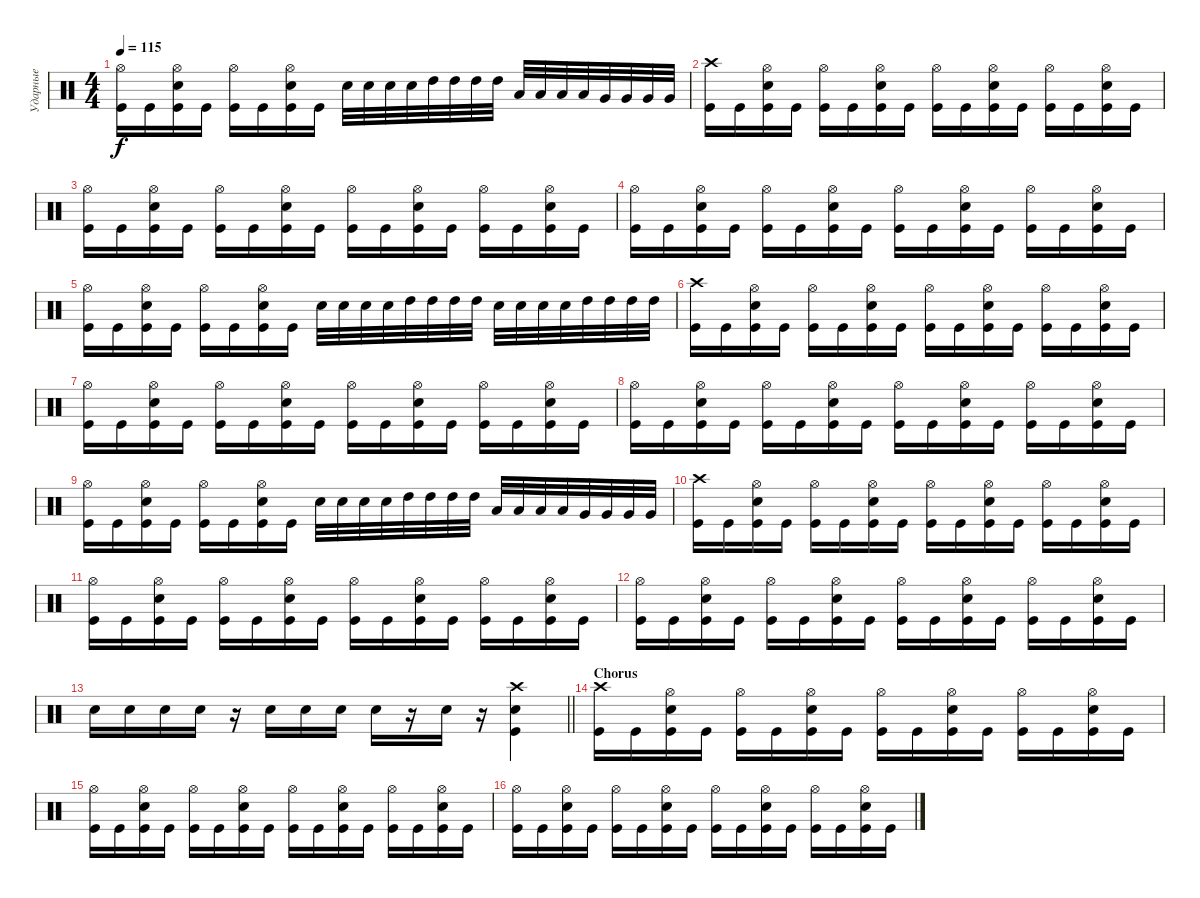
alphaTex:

\track ("Ударные" "Ударные") {instrument percussion}
\staff {score}
\articulation defaults
\ts (4 4)
\tempo 115
\clef neutral
\ks c
("Hi-Hat (open)" "Kick (hit)").16{dy f} "Kick (hit)".16 ("Hi-Hat (open)" "Snare (hit) 2" "Kick (hit)").16 "Kick (hit)".16 ("Hi-Hat (open)" "Kick (hit)").16 "Kick (hit)".16 ("Hi-Hat (open)" "Snare (hit) 2" "Kick (hit)").16 "Kick (hit)".16 "Snare (hit) 2".32 "Snare (hit) 2".32 "Snare (hit) 2".32 "Snare (hit) 2".32 "High Tom (hit)".32 "High Tom (hit)".32 "High Tom (hit)".32 "High Tom (hit)".32 "Low Tom (hit)".32 "Low Tom (hit)".32 "Low Tom (hit)".32 "Low Tom (hit)".32 "Very Low Tom (hit)".32 "Very Low Tom (hit)".32 "Very Low Tom (hit)".32 "Very Low Tom (hit)".32 |
("Crash high (hit)" "Kick (hit)").16 "Kick (hit)".16 ("Hi-Hat (open)" "Snare (hit) 2" "Kick (hit)").16 "Kick (hit)".16 ("Hi-Hat (open)" "Kick (hit)").16 "Kick (hit)".16 ("Hi-Hat (open)" "Snare (hit) 2" "Kick (hit)").16 "Kick (hit)".16 ("Hi-Hat (open)" "Kick (hit)").16 "Kick (hit)".16 ("Hi-Hat (open)" "Snare (hit) 2" "Kick (hit)").16 "Kick (hit)".16 ("Hi-Hat (open)" "Kick (hit)").16 "Kick (hit)".16 ("Hi-Hat (open)" "Snare (hit) 2" "Kick (hit)").16 "Kick (hit)".16 |
("Hi-Hat (open)" "Kick (hit)").16 "Kick (hit)".16 ("Hi-Hat (open)" "Snare (hit) 2" "Kick (hit)").16 "Kick (hit)".16 ("Hi-Hat (open)" "Kick (hit)").16 "Kick (hit)".16 ("Hi-Hat (open)" "Snare (hit) 2" "Kick (hit)").16 "Kick (hit)".16 ("Hi-Hat (open)" "Kick (hit)").16 "Kick (hit)".16 ("Hi-Hat (open)" "Snare (hit) 2" "Kick (hit)").16 "Kick (hit)".16 ("Hi-Hat (open)" "Kick (hit)").16 "Kick (hit)".16 ("Hi-Hat (open)" "Snare (hit) 2" "Kick (hit)").16 "Kick (hit)".16 |
("Hi-Hat (open)" "Kick (hit)").16 "Kick (hit)".16 ("Hi-Hat (open)" "Snare (hit) 2" "Kick (hit)").16 "Kick (hit)".16 ("Hi-Hat (open)" "Kick (hit)").16 "Kick (hit)".16 ("Hi-Hat (open)" "Snare (hit) 2" "Kick (hit)").16 "Kick (hit)".16 ("Hi-Hat (open)" "Kick (hit)").16 "Kick (hit)".16 ("Hi-Hat (open)" "Snare (hit) 2" "Kick (hit)").16 "Kick (hit)".16 ("Hi-Hat (open)" "Kick (hit)").16 "Kick (hit)".16 ("Hi-Hat (open)" "Snare (hit) 2" "Kick (hit)").16 "Kick (hit)".16 |
("Hi-Hat (open)" "Kick (hit)").16 "Kick (hit)".16 ("Hi-Hat (open)" "Snare (hit) 2" "Kick (hit)").16 "Kick (hit)".16 ("Hi-Hat (open)" "Kick (hit)").16 "Kick (hit)".16 ("Hi-Hat (open)" "Snare (hit) 2" "Kick (hit)").16 "Kick (hit)".16 "Snare (hit) 2".32 "Snare (hit) 2".32 "Snare (hit) 2".32 "Snare (hit) 2".32 "High Tom (hit)".32 "High Tom (hit)".32 "High Tom (hit)".32 "High Tom (hit)".32 "Snare (hit) 2".32 "Snare (hit) 2".32 "Snare (hit) 2".32 "Snare (hit) 2".32 "High Tom (hit)".32 "High Tom (hit)".32 "High Tom (hit)".32 "High Tom (hit)".32 |
("Crash high (hit)" "Kick (hit)").16 "Kick (hit)".16 ("Hi-Hat (open)" "Snare (hit) 2" "Kick (hit)").16 "Kick (hit)".16 ("Hi-Hat (open)" "Kick (hit)").16 "Kick (hit)".16 ("Hi-Hat (open)" "Snare (hit) 2" "Kick (hit)").16 "Kick (hit)".16 ("Hi-Hat (open)" "Kick (hit)").16 "Kick (hit)".16 ("Hi-Hat (open)" "Snare (hit) 2" "Kick (hit)").16 "Kick (hit)".16 ("Hi-Hat (open)" "Kick (hit)").16 "Kick (hit)".16 ("Hi-Hat (open)" "Snare (hit) 2" "Kick (hit)").16 "Kick (hit)".16 |
("Hi-Hat (open)" "Kick (hit)").16 "Kick (hit)".16 ("Hi-Hat (open)" "Snare (hit) 2" "Kick (hit)").16 "Kick (hit)".16 ("Hi-Hat (open)" "Kick (hit)").16 "Kick (hit)".16 ("Hi-Hat (open)" "Snare (hit) 2" "Kick (hit)").16 "Kick (hit)".16 ("Hi-Hat (open)" "Kick (hit)").16 "Kick (hit)".16 ("Hi-Hat (open)" "Snare (hit) 2" "Kick (hit)").16 "Kick (hit)".16 ("Hi-Hat (open)" "Kick (hit)").16 "Kick (hit)".16 ("Hi-Hat (open)" "Snare (hit) 2" "Kick (hit)").16 "Kick (hit)".16 |
("Hi-Hat (open)" "Kick (hit)").16 "Kick (hit)".16 ("Hi-Hat (open)" "Snare (hit) 2" "Kick (hit)").16 "Kick (hit)".16 ("Hi-Hat (open)" "Kick (hit)").16 "Kick (hit)".16 ("Hi-Hat (open)" "Snare (hit) 2" "Kick (hit)").16 "Kick (hit)".16 ("Hi-Hat (open)" "Kick (hit)").16 "Kick (hit)".16 ("Hi-Hat (open)" "Snare (hit) 2" "Kick (hit)").16 "Kick (hit)".16 ("Hi-Hat (open)" "Kick (hit)").16 "Kick (hit)".16 ("Hi-Hat (open)" "Snare (hit) 2" "Kick (hit)").16 "Kick (hit)".16 |
("Hi-Hat (open)" "Kick (hit)").16 "Kick (hit)".16 ("Hi-Hat (open)" "Snare (hit) 2" "Kick (hit)").16 "Kick (hit)".16 ("Hi-Hat (open)" "Kick (hit)").16 "Kick (hit)".16 ("Hi-Hat (open)" "Snare (hit) 2" "Kick (hit)").16 "Kick (hit)".16 "Snare (hit) 2".32 "Snare (hit) 2".32 "Snare (hit) 2".32 "Snare (hit) 2".32 "High Tom (hit)".32 "High Tom (hit)".32 "High Tom (hit)".32 "High Tom (hit)".32 "Low Tom (hit)".32 "Low Tom (hit)".32 "Low Tom (hit)".32 "Low Tom (hit)".32 "Very Low Tom (hit)".32 "Very Low Tom (hit)".32 "Very Low Tom (hit)".32 "Very Low Tom (hit)".32 |
("Crash high (hit)" "Kick (hit)").16 "Kick (hit)".16 ("Hi-Hat (open)" "Snare (hit) 2" "Kick (hit)").16 "Kick (hit)".16 ("Hi-Hat (open)" "Kick (hit)").16 "Kick (hit)".16 ("Hi-Hat (open)" "Snare (hit) 2" "Kick (hit)").16 "Kick (hit)".16 ("Hi-Hat (open)" "Kick (hit)").16 "Kick (hit)".16 ("Hi-Hat (open)" "Snare (hit) 2" "Kick (hit)").16 "Kick (hit)".16 ("Hi-Hat (open)" "Kick (hit)").16 "Kick (hit)".16 ("Hi-Hat (open)" "Snare (hit) 2" "Kick (hit)").16 "Kick (hit)".16 |
("Hi-Hat (open)" "Kick (hit)").16 "Kick (hit)".16 ("Hi-Hat (open)" "Snare (hit) 2" "Kick (hit)").16 "Kick (hit)".16 ("Hi-Hat (open)" "Kick (hit)").16 "Kick (hit)".16 ("Hi-Hat (open)" "Snare (hit) 2" "Kick (hit)").16 "Kick (hit)".16 ("Hi-Hat (open)" "Kick (hit)").16 "Kick (hit)".16 ("Hi-Hat (open)" "Snare (hit) 2" "Kick (hit)").16 "Kick (hit)".16 ("Hi-Hat (open)" "Kick (hit)").16 "Kick (hit)".16 ("Hi-Hat (open)" "Snare (hit) 2" "Kick (hit)").16 "Kick (hit)".16 |
("Hi-Hat (open)" "Kick (hit)").16 "Kick (hit)".16 ("Hi-Hat (open)" "Snare (hit) 2" "Kick (hit)").16 "Kick (hit)".16 ("Hi-Hat (open)" "Kick (hit)").16 "Kick (hit)".16 ("Hi-Hat (open)" "Snare (hit) 2" "Kick (hit)").16 "Kick (hit)".16 ("Hi-Hat (open)" "Kick (hit)").16 "Kick (hit)".16 ("Hi-Hat (open)" "Snare (hit) 2" "Kick (hit)").16 "Kick (hit)".16 ("Hi-Hat (open)" "Kick (hit)").16 "Kick (hit)".16 ("Hi-Hat (open)" "Snare (hit) 2" "Kick (hit)").16 "Kick (hit)".16 |
\barLineRight lightlight "Snare (hit) 2".16 "Snare (hit) 2".16 "Snare (hit) 2".16 "Snare (hit) 2".16
r.16 "Snare (hit) 2".16 "Snare (hit) 2".16 "Snare (hit) 2".16 "Snare (hit) 2".16 r.16 "Snare (hit) 2".16 r.16 ("Crash high (hit)" "Snare (hit) 2" "Kick (hit)").4 |
\section ("" "Chorus")
("Crash high (hit)" "Kick (hit)").16 "Kick (hit)".16 ("Hi-Hat (open)" "Snare (hit) 2" "Kick (hit)").16 "Kick (hit)".16 ("Hi-Hat (open)" "Kick (hit)").16 "Kick (hit)".16 ("Hi-Hat (open)" "Snare (hit) 2" "Kick (hit)").16 "Kick (hit)".16 ("Hi-Hat (open)" "Kick (hit)").16 "Kick (hit)".16 ("Hi-Hat (open)" "Snare (hit) 2" "Kick (hit)").16 "Kick (hit)".16 ("Hi-Hat (open)" "Kick (hit)").16 "Kick (hit)".16 ("Hi-Hat (open)" "Snare (hit) 2" "Kick (hit)").16 "Kick (hit)".16 |
("Hi-Hat (open)" "Kick (hit)").16 "Kick (hit)".16 ("Hi-Hat (open)" "Snare (hit) 2" "Kick (hit)").16 "Kick (hit)".16 ("Hi-Hat (open)" "Kick (hit)").16 "Kick (hit)".16 ("Hi-Hat (open)" "Snare (hit) 2" "Kick (hit)").16 "Kick (hit)".16 ("Hi-Hat (open)" "Kick (hit)").16 "Kick (hit)".16 ("Hi-Hat (open)" "Snare (hit) 2" "Kick (hit)").16 "Kick (hit)".16 ("Hi-Hat (open)" "Kick (hit)").16 "Kick (hit)".16 ("Hi-Hat (open)" "Snare (hit) 2" "Kick (hit)").16 "Kick (hit)".16 |
("Hi-Hat (open)" "Kick (hit)").16 "Kick (hit)".16 ("Hi-Hat (open)" "Snare (hit) 2" "Kick (hit)").16 "Kick (hit)".16 ("Hi-Hat (open)" "Kick (hit)").16 "Kick (hit)".16 ("Hi-Hat (open)" "Snare (hit) 2" "Kick (hit)").16 "Kick (hit)".16 ("Hi-Hat (open)" "Kick (hit)").16 "Kick (hit)".16 ("Hi-Hat (open)" "Snare (hit) 2" "Kick (hit)").16 "Kick (hit)".16 ("Hi-Hat (open)" "Kick (hit)").16 "Kick (hit)".16 ("Hi-Hat (open)" "Snare (hit) 2" "Kick (hit)").16 "Kick (hit)".16
